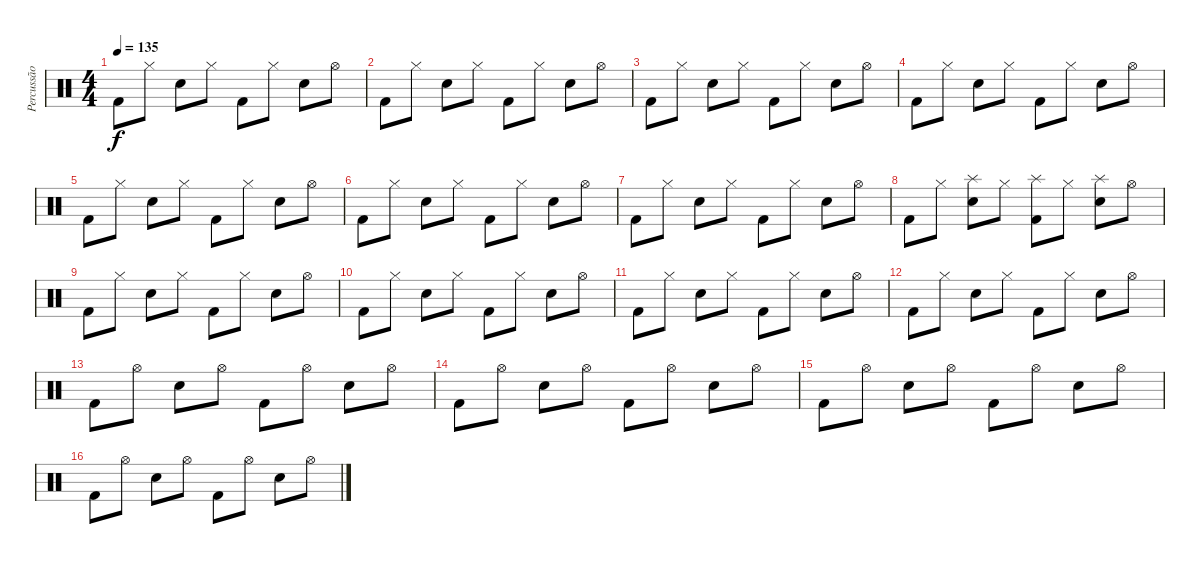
\track ("Percussão" "Percussão") {instrument percussion}
\staff {score}
\articulation defaults
\ts (4 4)
\tempo 135
\clef neutral
\ks c "Kick (hit) 2".8{dy f} "Hi-Hat (closed)".8 "Electric Snare (hit)".8 "Hi-Hat (closed)".8 "Kick (hit) 2".8 "Hi-Hat (closed)".8 "Electric Snare (hit)".8 "Hi-Hat (open)".8
|
"Kick (hit) 2".8 "Hi-Hat (closed)".8 "Electric Snare (hit)".8 "Hi-Hat (closed)".8 "Kick (hit) 2".8 "Hi-Hat (closed)".8 "Electric Snare (hit)".8 "Hi-Hat (open)".8 |
"Kick (hit) 2".8 "Hi-Hat (closed)".8 "Electric Snare (hit)".8 "Hi-Hat (closed)".8 "Kick (hit) 2".8 "Hi-Hat (closed)".8 "Electric Snare (hit)".8 "Hi-Hat (open)".8 |
"Kick (hit) 2".8 "Hi-Hat (closed)".8 "Electric Snare (hit)".8 "Hi-Hat (closed)".8 "Kick (hit) 2".8 "Hi-Hat (closed)".8 "Electric Snare (hit)".8 "Hi-Hat (open)".8 |
"Kick (hit) 2".8 "Hi-Hat (closed)".8 "Electric Snare (hit)".8 "Hi-Hat (closed)".8 "Kick (hit) 2".8 "Hi-Hat (closed)".8 "Electric Snare (hit)".8 "Hi-Hat (open)".8 |
"Kick (hit) 2".8 "Hi-Hat (closed)".8 "Electric Snare (hit)".8 "Hi-Hat (closed)".8 "Kick (hit) 2".8 "Hi-Hat (closed)".8 "Electric Snare (hit)".8 "Hi-Hat (open)".8 |
"Kick (hit) 2".8 "Hi-Hat (closed)".8 "Electric Snare (hit)".8 "Hi-Hat (closed)".8 "Kick (hit) 2".8 "Hi-Hat (closed)".8 "Electric Snare (hit)".8 "Hi-Hat (open)".8 |
"Kick (hit) 2".8 "Hi-Hat (closed)".8 ("Splash (hit)" "Electric Snare (hit)").8 "Hi-Hat (closed)".8 ("Splash (hit)" "Kick (hit) 2").8 "Hi-Hat (closed)".8 ("Splash (hit)" "Electric Snare (hit)").8 "Hi-Hat (open)".8 |
"Kick (hit) 2".8 "Hi-Hat (closed)".8 "Electric Snare (hit)".8 "Hi-Hat (closed)".8 "Kick (hit) 2".8 "Hi-Hat (closed)".8 "Electric Snare (hit)".8 "Hi-Hat (open)".8 |
"Kick (hit) 2".8 "Hi-Hat (closed)".8 "Electric Snare (hit)".8 "Hi-Hat (closed)".8 "Kick (hit) 2".8 "Hi-Hat (closed)".8 "Electric Snare (hit)".8 "Hi-Hat (open)".8 |
"Kick (hit) 2".8 "Hi-Hat (closed)".8 "Electric Snare (hit)".8 "Hi-Hat (closed)".8 "Kick (hit) 2".8 "Hi-Hat (closed)".8 "Electric Snare (hit)".8 "Hi-Hat (open)".8 |
"Kick (hit) 2".8 "Hi-Hat (closed)".8 "Electric Snare (hit)".8 "Hi-Hat (closed)".8 "Kick (hit) 2".8 "Hi-Hat (closed)".8 "Electric Snare (hit)".8 "Hi-Hat (open)".8 |
"Kick (hit) 2".8 "Hi-Hat (open)".8 "Electric Snare (hit)".8 "Hi-Hat (open)".8 "Kick (hit) 2".8 "Hi-Hat (open)".8 "Electric Snare (hit)".8 "Hi-Hat (open)".8 |
"Kick (hit) 2".8 "Hi-Hat (open)".8 "Electric Snare (hit)".8 "Hi-Hat (open)".8 "Kick (hit) 2".8 "Hi-Hat (open)".8 "Electric Snare (hit)".8 "Hi-Hat (open)".8 |
"Kick (hit) 2".8 "Hi-Hat (open)".8 "Electric Snare (hit)".8 "Hi-Hat (open)".8 "Kick (hit) 2".8 "Hi-Hat (open)".8 "Electric Snare (hit)".8 "Hi-Hat (open)".8 |
"Kick (hit) 2".8 "Hi-Hat (open)".8 "Electric Snare (hit)".8 "Hi-Hat (open)".8 "Kick (hit) 2".8 "Hi-Hat (open)".8 "Electric Snare (hit)".8 "Hi-Hat (open)".8
